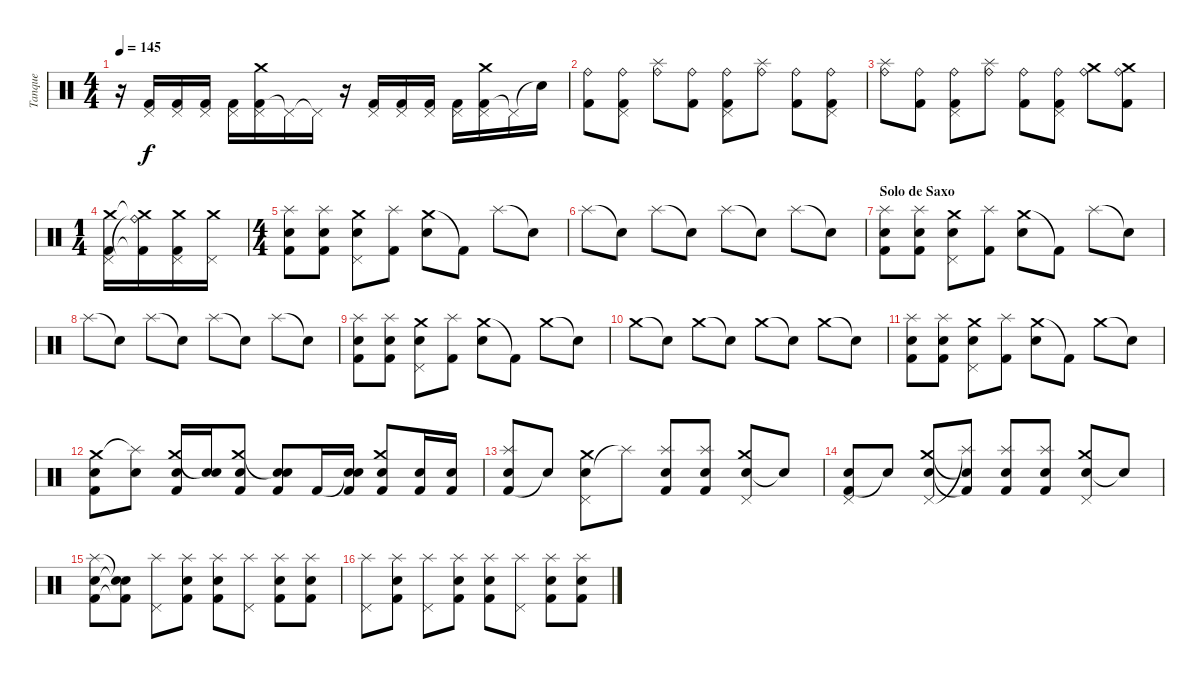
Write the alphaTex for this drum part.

\track ("Tanque" "Tanque") {instrument percussion}
\staff {score}
\articulation defaults
\ts (4 4)
\tempo 145
\clef neutral
\ks c
r.16{dy f} ("Kick (hit) 2" "Pedal Hi-Hat (hit)").16 ("Kick (hit) 2" "Pedal Hi-Hat (hit)").16 ("Kick (hit) 2" "Pedal Hi-Hat (hit)").16 ("Kick (hit) 2" "Pedal Hi-Hat (hit)").16 ("Kick (hit) 2" "Pedal Hi-Hat (hit)" "Crash medium (hit)").16 "Pedal Hi-Hat (hit)"{t}.16 "Pedal Hi-Hat (hit)"{t}.16 r.16 ("Kick (hit) 2" "Pedal Hi-Hat (hit)").16 ("Kick (hit) 2" "Pedal Hi-Hat (hit)").16 ("Kick (hit) 2" "Pedal Hi-Hat (hit)").16 ("Kick (hit) 2" "Pedal Hi-Hat (hit)").16 ("Kick (hit) 2" "Pedal Hi-Hat (hit)" "Crash medium (hit)").16 "Pedal Hi-Hat (hit)"{t}.16 "Snare (hit)"{t}.16 |
("Kick (hit) 2" "Ride (bell)").8 ("Kick (hit) 2" "Ride (bell)" "Pedal Hi-Hat (hit)").8 ("Ride (bell)" "Splash (hit)").8 ("Kick (hit) 2" "Ride (bell)").8 ("Kick (hit) 2" "Ride (bell)" "Pedal Hi-Hat (hit)").8 ("Ride (bell)" "Splash (hit)").8 ("Kick (hit) 2" "Ride (bell)").8 ("Kick (hit) 2" "Ride (bell)" "Pedal Hi-Hat (hit)").8 |
("Ride (bell)" "Splash (hit)").8 ("Kick (hit) 2" "Ride (bell)").8 ("Kick (hit) 2" "Ride (bell)" "Pedal Hi-Hat (hit)").8 ("Ride (bell)" "Splash (hit)").8 ("Kick (hit) 2" "Ride (bell)").8 ("Kick (hit) 2" "Ride (bell)" "Pedal Hi-Hat (hit)").8 ("Ride (bell)" "Crash medium (hit)").8 ("Kick (hit) 2" "Ride (bell)" "Crash medium (hit)").8 |
\ts (1 4)
("Kick (hit) 2" "Pedal Hi-Hat (hit)" "Crash medium (hit)").16 ("Kick (hit) 2"{t} "Ride (bell)"{t} "Crash medium (hit)"{t}).16 ("Kick (hit) 2" "Pedal Hi-Hat (hit)" "Crash medium (hit)").16 ("Pedal Hi-Hat (hit)" "Crash medium (hit)").16 |
\ts (4 4)
("Kick (hit) 2" "Snare (hit) 2" "Splash (hit)").8 ("Kick (hit) 2" "Snare (hit) 2" "Splash (hit)").8 ("Pedal Hi-Hat (hit)" "Crash medium (hit)" "Snare (hit) 2").8 ("Kick (hit) 2" "Splash (hit)").8 ("Crash medium (hit)" "Snare (hit) 2").8 "Kick (hit) 2"{t}.8 "Splash (hit)".8 "Snare (hit)"{t}.8 |
"Splash (hit)".8 "Snare (hit)"{t}.8 "Splash (hit)".8 "Snare (hit)"{t}.8 "Splash (hit)".8 "Snare (hit)"{t}.8 "Splash (hit)".8 "Snare (hit)"{t}.8 |
\section ("" "Solo de Saxo")
("Kick (hit) 2" "Snare (hit) 2" "Splash (hit)").8 ("Kick (hit) 2" "Snare (hit) 2" "Splash (hit)").8 ("Pedal Hi-Hat (hit)" "Crash medium (hit)" "Snare (hit) 2").8 ("Kick (hit) 2" "Splash (hit)").8 ("Crash medium (hit)" "Snare (hit) 2").8 "Kick (hit) 2"{t}.8 "Splash (hit)".8 "Snare (hit)"{t}.8 |
"Splash (hit)".8 "Snare (hit)"{t}.8 "Splash (hit)".8 "Snare (hit)"{t}.8 "Splash (hit)".8 "Snare (hit)"{t}.8 "Splash (hit)".8 "Snare (hit)"{t}.8 |
("Kick (hit) 2" "Snare (hit) 2" "Splash (hit)").8 ("Kick (hit) 2" "Snare (hit) 2" "Splash (hit)").8 ("Pedal Hi-Hat (hit)" "Crash medium (hit)" "Snare (hit) 2").8 ("Kick (hit) 2" "Splash (hit)").8 ("Crash medium (hit)" "Snare (hit) 2").8 "Kick (hit) 2"{t}.8 "Crash medium (hit)".8 "Snare (hit)"{t}.8 |
"Crash medium (hit)".8 "Snare (hit)"{t}.8 "Crash medium (hit)".8 "Snare (hit)"{t}.8 "Crash medium (hit)".8 "Snare (hit)"{t}.8 "Crash medium (hit)".8 "Snare (hit)"{t}.8 |
("Kick (hit) 2" "Snare (hit) 2" "Splash (hit)").8 ("Kick (hit) 2" "Snare (hit) 2" "Splash (hit)").8 ("Pedal Hi-Hat (hit)" "Crash medium (hit)" "Snare (hit) 2").8 ("Kick (hit) 2" "Splash (hit)").8 ("Crash medium (hit)" "Snare (hit) 2").8 "Kick (hit) 2"{t}.8 "Crash medium (hit)".8 "Snare (hit)"{t}.8 |
("Crash medium (hit)" "Snare (hit) 2" "Kick (hit) 2").8 ("Splash (hit)"{t} "Snare (hit) 2").8 ("Crash medium (hit)" "Snare (hit) 2" "Kick (hit) 2").16 ("Snare (hit)"{t} "Snare (hit) 2").16 ("Crash medium (hit)" "Snare (hit) 2" "Kick (hit) 2").8 ("Snare (hit)"{t} "Snare (hit) 2" "Kick (hit) 2").8 "Kick (hit) 2".16 ("Snare (hit)"{t} "Snare (hit) 2" "Kick (hit) 2").16 ("Crash medium (hit)" "Snare (hit) 2" "Kick (hit) 2").8 ("Snare (hit) 2" "Kick (hit) 2").16 ("Snare (hit) 2" "Kick (hit) 2").16 |
("Kick (hit) 2" "Electric Snare (hit)" "Splash (hit)").8 "Snare (hit)"{t}.8 ("Snare (hit) 2" "Crash medium (hit)" "Pedal Hi-Hat (hit)").8 "Splash (hit)"{t}.8 ("Kick (hit) 2" "Electric Snare (hit)" "Splash (hit)").8 ("Kick (hit) 2" "Electric Snare (hit)" "Splash (hit)").8 ("Snare (hit) 2" "Crash medium (hit)" "Pedal Hi-Hat (hit)").8 "Snare (hit)"{t}.8 |
("Kick (hit) 2" "Electric Snare (hit)" "Pedal Hi-Hat (hit)").8 "Snare (hit)"{t}.8 ("Snare (hit) 2" "Crash medium (hit)" "Pedal Hi-Hat (hit)").8 ("Kick (hit) 2"{t} "Electric Snare (hit)"{t} "Splash (hit)"{t}).8 ("Kick (hit) 2" "Electric Snare (hit)" "Splash (hit)").8 ("Kick (hit) 2" "Electric Snare (hit)" "Splash (hit)").8 ("Snare (hit) 2" "Crash medium (hit)" "Pedal Hi-Hat (hit)").8 "Snare (hit)"{t}.8 |
("Kick (hit) 2" "Snare (hit) 2" "Splash (hit)").8 ("Kick (hit) 2"{t} "Snare (hit)"{t} "Snare (hit)"{t}).8 ("Pedal Hi-Hat (hit)" "Splash (hit)").8 ("Kick (hit) 2" "Snare (hit) 2" "Splash (hit)").8 ("Kick (hit) 2" "Snare (hit) 2" "Splash (hit)").8 ("Pedal Hi-Hat (hit)" "Splash (hit)").8 ("Kick (hit) 2" "Snare (hit) 2" "Splash (hit)").8 ("Kick (hit) 2" "Snare (hit) 2" "Splash (hit)").8 |
("Pedal Hi-Hat (hit)" "Splash (hit)").8 ("Kick (hit) 2" "Snare (hit) 2" "Splash (hit)").8 ("Pedal Hi-Hat (hit)" "Splash (hit)").8 ("Kick (hit) 2" "Snare (hit) 2" "Splash (hit)").8 ("Kick (hit) 2" "Snare (hit) 2" "Splash (hit)").8 ("Pedal Hi-Hat (hit)" "Splash (hit)").8 ("Kick (hit) 2" "Snare (hit) 2" "Splash (hit)").8 ("Kick (hit) 2" "Snare (hit) 2" "Splash (hit)").8
